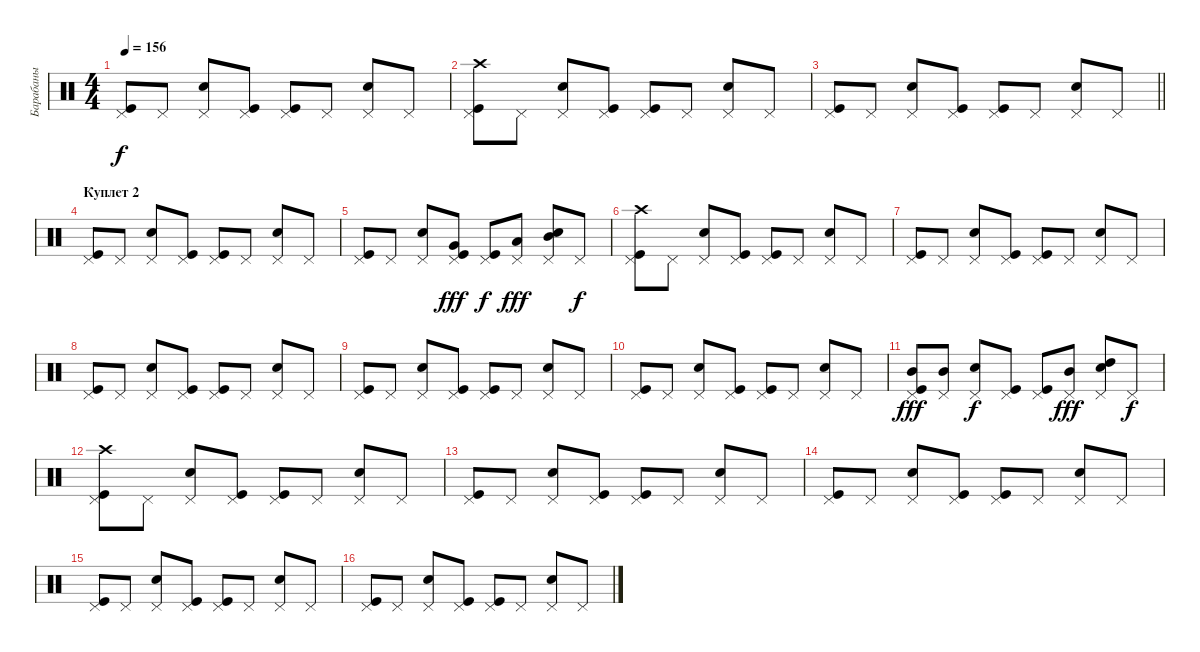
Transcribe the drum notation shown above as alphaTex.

\track ("Барабаны" "Барабаны") {instrument percussion}
\staff {score}
\articulation defaults
\ts (4 4)
\tempo 156
\clef neutral
\ks c
("Kick (hit)" "Pedal Hi-Hat (hit)").8{dy f} "Pedal Hi-Hat (hit)".8 ("Snare (hit) 2" "Pedal Hi-Hat (hit)").8 ("Kick (hit)" "Pedal Hi-Hat (hit)").8 ("Kick (hit)" "Pedal Hi-Hat (hit)").8 "Pedal Hi-Hat (hit)".8 ("Snare (hit) 2" "Pedal Hi-Hat (hit)").8 "Pedal Hi-Hat (hit)".8 |
("Kick (hit)" "Pedal Hi-Hat (hit)" "Crash high (hit)").8 "Pedal Hi-Hat (hit)".8 ("Snare (hit) 2" "Pedal Hi-Hat (hit)").8 ("Kick (hit)" "Pedal Hi-Hat (hit)").8 ("Kick (hit)" "Pedal Hi-Hat (hit)").8 "Pedal Hi-Hat (hit)".8 ("Snare (hit) 2" "Pedal Hi-Hat (hit)").8 "Pedal Hi-Hat (hit)".8 |
\barLineRight lightlight
("Kick (hit)" "Pedal Hi-Hat (hit)").8 "Pedal Hi-Hat (hit)".8 ("Snare (hit) 2" "Pedal Hi-Hat (hit)").8 ("Kick (hit)" "Pedal Hi-Hat (hit)").8 ("Kick (hit)" "Pedal Hi-Hat (hit)").8 "Pedal Hi-Hat (hit)".8 ("Snare (hit) 2" "Pedal Hi-Hat (hit)").8 "Pedal Hi-Hat (hit)".8 |
\section ("" "Куплет 2")
("Kick (hit)" "Pedal Hi-Hat (hit)").8 "Pedal Hi-Hat (hit)".8 ("Snare (hit) 2" "Pedal Hi-Hat (hit)").8 ("Kick (hit)" "Pedal Hi-Hat (hit)").8 ("Kick (hit)" "Pedal Hi-Hat (hit)").8 "Pedal Hi-Hat (hit)".8 ("Snare (hit) 2" "Pedal Hi-Hat (hit)").8 "Pedal Hi-Hat (hit)".8 |
("Kick (hit)" "Pedal Hi-Hat (hit)").8 "Pedal Hi-Hat (hit)".8 ("Snare (hit) 2" "Pedal Hi-Hat (hit)").8 ("Kick (hit)" "Pedal Hi-Hat (hit)" "Very Low Tom (hit)").8{dy fff} ("Kick (hit)" "Pedal Hi-Hat (hit)").8{dy f} ("Pedal Hi-Hat (hit)" "Low Tom (hit)").8{dy fff} ("Snare (hit) 2" "Pedal Hi-Hat (hit)" "Mid Tom (hit)").8 "Pedal Hi-Hat (hit)".8{dy f} |
("Kick (hit)" "Pedal Hi-Hat (hit)" "Crash high (hit)").8 "Pedal Hi-Hat (hit)".8 ("Snare (hit) 2" "Pedal Hi-Hat (hit)").8 ("Kick (hit)" "Pedal Hi-Hat (hit)").8 ("Kick (hit)" "Pedal Hi-Hat (hit)").8 "Pedal Hi-Hat (hit)".8 ("Snare (hit) 2" "Pedal Hi-Hat (hit)").8 "Pedal Hi-Hat (hit)".8 |
("Kick (hit)" "Pedal Hi-Hat (hit)").8 "Pedal Hi-Hat (hit)".8 ("Snare (hit) 2" "Pedal Hi-Hat (hit)").8 ("Kick (hit)" "Pedal Hi-Hat (hit)").8 ("Kick (hit)" "Pedal Hi-Hat (hit)").8 "Pedal Hi-Hat (hit)".8 ("Snare (hit) 2" "Pedal Hi-Hat (hit)").8 "Pedal Hi-Hat (hit)".8 |
("Kick (hit)" "Pedal Hi-Hat (hit)").8 "Pedal Hi-Hat (hit)".8 ("Snare (hit) 2" "Pedal Hi-Hat (hit)").8 ("Kick (hit)" "Pedal Hi-Hat (hit)").8 ("Kick (hit)" "Pedal Hi-Hat (hit)").8 "Pedal Hi-Hat (hit)".8 ("Snare (hit) 2" "Pedal Hi-Hat (hit)").8 "Pedal Hi-Hat (hit)".8 |
("Kick (hit)" "Pedal Hi-Hat (hit)").8 "Pedal Hi-Hat (hit)".8 ("Snare (hit) 2" "Pedal Hi-Hat (hit)").8 ("Kick (hit)" "Pedal Hi-Hat (hit)").8 ("Kick (hit)" "Pedal Hi-Hat (hit)").8 "Pedal Hi-Hat (hit)".8 ("Snare (hit) 2" "Pedal Hi-Hat (hit)").8 "Pedal Hi-Hat (hit)".8 |
("Kick (hit)" "Pedal Hi-Hat (hit)").8 "Pedal Hi-Hat (hit)".8 ("Snare (hit) 2" "Pedal Hi-Hat (hit)").8 ("Kick (hit)" "Pedal Hi-Hat (hit)").8 ("Kick (hit)" "Pedal Hi-Hat (hit)").8 "Pedal Hi-Hat (hit)".8 ("Snare (hit) 2" "Pedal Hi-Hat (hit)").8 "Pedal Hi-Hat (hit)".8 |
("Kick (hit)" "Pedal Hi-Hat (hit)" "Mid Tom (hit)").8{dy fff} ("Pedal Hi-Hat (hit)" "Mid Tom (hit)").8 ("Snare (hit) 2" "Pedal Hi-Hat (hit)").8{dy f} ("Kick (hit)" "Pedal Hi-Hat (hit)").8 ("Kick (hit)" "Pedal Hi-Hat (hit)").8 ("Pedal Hi-Hat (hit)" "Mid Tom (hit)").8{dy fff} ("Snare (hit) 2" "Pedal Hi-Hat (hit)" "High Tom (hit)").8 "Pedal Hi-Hat (hit)".8{dy f} |
("Kick (hit)" "Pedal Hi-Hat (hit)" "Crash high (hit)").8 "Pedal Hi-Hat (hit)".8 ("Snare (hit) 2" "Pedal Hi-Hat (hit)").8 ("Kick (hit)" "Pedal Hi-Hat (hit)").8 ("Kick (hit)" "Pedal Hi-Hat (hit)").8 "Pedal Hi-Hat (hit)".8 ("Snare (hit) 2" "Pedal Hi-Hat (hit)").8 "Pedal Hi-Hat (hit)".8 |
("Kick (hit)" "Pedal Hi-Hat (hit)").8 "Pedal Hi-Hat (hit)".8 ("Snare (hit) 2" "Pedal Hi-Hat (hit)").8 ("Kick (hit)" "Pedal Hi-Hat (hit)").8 ("Kick (hit)" "Pedal Hi-Hat (hit)").8 "Pedal Hi-Hat (hit)".8 ("Snare (hit) 2" "Pedal Hi-Hat (hit)").8 "Pedal Hi-Hat (hit)".8 |
("Kick (hit)" "Pedal Hi-Hat (hit)").8 "Pedal Hi-Hat (hit)".8 ("Snare (hit) 2" "Pedal Hi-Hat (hit)").8 ("Kick (hit)" "Pedal Hi-Hat (hit)").8 ("Kick (hit)" "Pedal Hi-Hat (hit)").8 "Pedal Hi-Hat (hit)".8 ("Snare (hit) 2" "Pedal Hi-Hat (hit)").8 "Pedal Hi-Hat (hit)".8 |
("Kick (hit)" "Pedal Hi-Hat (hit)").8 "Pedal Hi-Hat (hit)".8 ("Snare (hit) 2" "Pedal Hi-Hat (hit)").8 ("Kick (hit)" "Pedal Hi-Hat (hit)").8 ("Kick (hit)" "Pedal Hi-Hat (hit)").8 "Pedal Hi-Hat (hit)".8 ("Snare (hit) 2" "Pedal Hi-Hat (hit)").8 "Pedal Hi-Hat (hit)".8 |
("Kick (hit)" "Pedal Hi-Hat (hit)").8 "Pedal Hi-Hat (hit)".8 ("Snare (hit) 2" "Pedal Hi-Hat (hit)").8 ("Kick (hit)" "Pedal Hi-Hat (hit)").8 ("Kick (hit)" "Pedal Hi-Hat (hit)").8 "Pedal Hi-Hat (hit)".8 ("Snare (hit) 2" "Pedal Hi-Hat (hit)").8 "Pedal Hi-Hat (hit)".8
